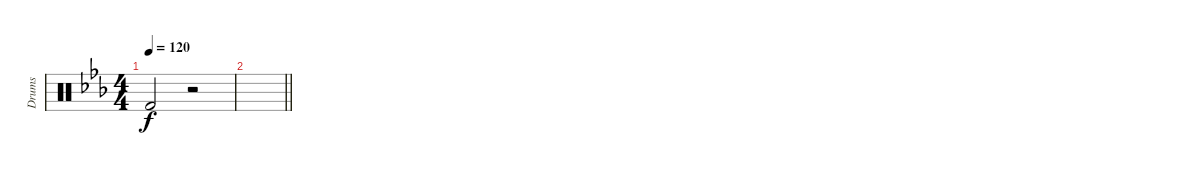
\track ("Drums" "Drums") {instrument percussion}
\staff {score}
\articulation defaults
\ts (4 4)
\tempo 120
\clef neutral
\ks eb "Kick (hit) 2".2{dy f}
r.2 |
\barLineRight lightlight
